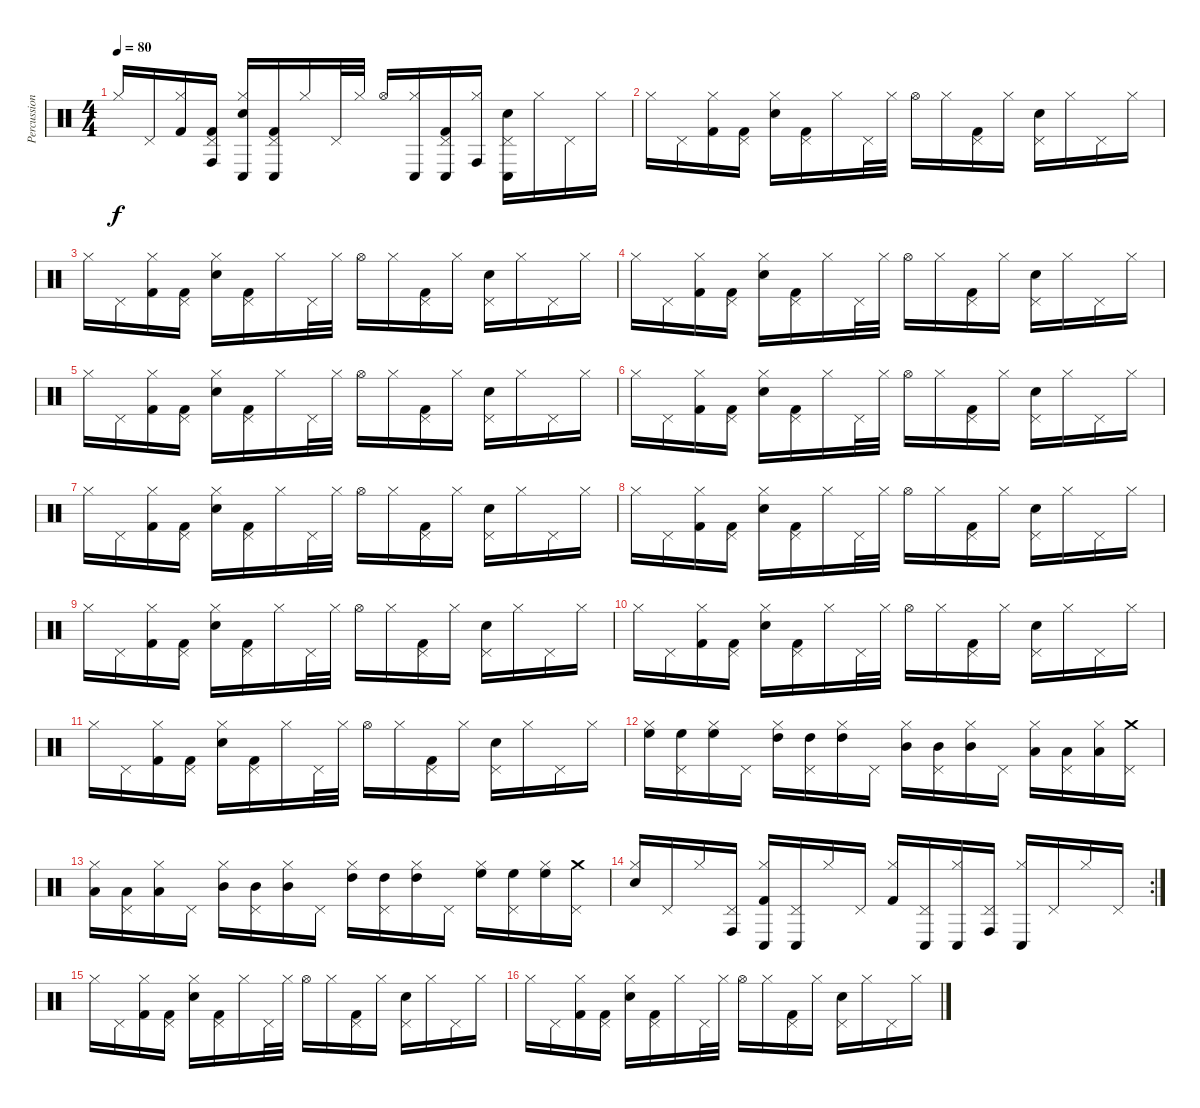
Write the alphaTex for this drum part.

\track ("Percussions" "Percussion") {instrument percussion}
\staff {score}
\articulation defaults
\ts (4 4)
\tempo 80
\clef neutral
\ks c "Hi-Hat (closed)".16{dy f} "Pedal Hi-Hat (hit)".16
("Hi-Hat (closed)" "Kick (hit) 2").16 ("Pedal Hi-Hat (hit)" "Conga high (hit)" "Kick (hit) 2").16 ("Hi-Hat (closed)" "Conga low (hit)" "Electric Snare (hit)").16 ("Pedal Hi-Hat (hit)" "Conga low (hit)" "Kick (hit) 2").16 "Hi-Hat (closed)".16 "Pedal Hi-Hat (hit)".32 "Hi-Hat (closed)".32 "Hi-Hat (open)".16 ("Hi-Hat (closed)" "Conga low (hit)").16 ("Pedal Hi-Hat (hit)" "Conga low (hit)" "Kick (hit) 2").16 ("Hi-Hat (closed)" "Conga high (hit)").16 ("Pedal Hi-Hat (hit)" "Conga low (hit)" "Electric Snare (hit)").16 "Hi-Hat (closed)".16 "Pedal Hi-Hat (hit)".16 "Hi-Hat (closed)".16 |
"Hi-Hat (closed)".16 "Pedal Hi-Hat (hit)".16 ("Hi-Hat (closed)" "Kick (hit) 2").16 ("Pedal Hi-Hat (hit)" "Kick (hit) 2").16 ("Hi-Hat (closed)" "Electric Snare (hit)").16 ("Pedal Hi-Hat (hit)" "Kick (hit) 2").16 "Hi-Hat (closed)".16 "Pedal Hi-Hat (hit)".32 "Hi-Hat (closed)".32 "Hi-Hat (open)".16 "Hi-Hat (closed)".16 ("Pedal Hi-Hat (hit)" "Kick (hit) 2").16 "Hi-Hat (closed)".16 ("Pedal Hi-Hat (hit)" "Electric Snare (hit)").16 "Hi-Hat (closed)".16 "Pedal Hi-Hat (hit)".16 "Hi-Hat (closed)".16 |
"Hi-Hat (closed)".16 "Pedal Hi-Hat (hit)".16 ("Hi-Hat (closed)" "Kick (hit) 2").16 ("Pedal Hi-Hat (hit)" "Kick (hit) 2").16 ("Hi-Hat (closed)" "Electric Snare (hit)").16 ("Pedal Hi-Hat (hit)" "Kick (hit) 2").16 "Hi-Hat (closed)".16 "Pedal Hi-Hat (hit)".32 "Hi-Hat (closed)".32 "Hi-Hat (open)".16 "Hi-Hat (closed)".16 ("Pedal Hi-Hat (hit)" "Kick (hit) 2").16 "Hi-Hat (closed)".16 ("Pedal Hi-Hat (hit)" "Electric Snare (hit)").16 "Hi-Hat (closed)".16 "Pedal Hi-Hat (hit)".16 "Hi-Hat (closed)".16 |
"Hi-Hat (closed)".16 "Pedal Hi-Hat (hit)".16 ("Hi-Hat (closed)" "Kick (hit) 2").16 ("Pedal Hi-Hat (hit)" "Kick (hit) 2").16 ("Hi-Hat (closed)" "Electric Snare (hit)").16 ("Pedal Hi-Hat (hit)" "Kick (hit) 2").16 "Hi-Hat (closed)".16 "Pedal Hi-Hat (hit)".32 "Hi-Hat (closed)".32 "Hi-Hat (open)".16 "Hi-Hat (closed)".16 ("Pedal Hi-Hat (hit)" "Kick (hit) 2").16 "Hi-Hat (closed)".16 ("Pedal Hi-Hat (hit)" "Electric Snare (hit)").16 "Hi-Hat (closed)".16 "Pedal Hi-Hat (hit)".16 "Hi-Hat (closed)".16 |
"Hi-Hat (closed)".16 "Pedal Hi-Hat (hit)".16 ("Hi-Hat (closed)" "Kick (hit) 2").16 ("Pedal Hi-Hat (hit)" "Kick (hit) 2").16 ("Hi-Hat (closed)" "Electric Snare (hit)").16 ("Pedal Hi-Hat (hit)" "Kick (hit) 2").16 "Hi-Hat (closed)".16 "Pedal Hi-Hat (hit)".32 "Hi-Hat (closed)".32 "Hi-Hat (open)".16 "Hi-Hat (closed)".16 ("Pedal Hi-Hat (hit)" "Kick (hit) 2").16 "Hi-Hat (closed)".16 ("Pedal Hi-Hat (hit)" "Electric Snare (hit)").16 "Hi-Hat (closed)".16 "Pedal Hi-Hat (hit)".16 "Hi-Hat (closed)".16 |
"Hi-Hat (closed)".16 "Pedal Hi-Hat (hit)".16 ("Hi-Hat (closed)" "Kick (hit) 2").16 ("Pedal Hi-Hat (hit)" "Kick (hit) 2").16 ("Hi-Hat (closed)" "Electric Snare (hit)").16 ("Pedal Hi-Hat (hit)" "Kick (hit) 2").16 "Hi-Hat (closed)".16 "Pedal Hi-Hat (hit)".32 "Hi-Hat (closed)".32 "Hi-Hat (open)".16 "Hi-Hat (closed)".16 ("Pedal Hi-Hat (hit)" "Kick (hit) 2").16 "Hi-Hat (closed)".16 ("Pedal Hi-Hat (hit)" "Electric Snare (hit)").16 "Hi-Hat (closed)".16 "Pedal Hi-Hat (hit)".16 "Hi-Hat (closed)".16 |
"Hi-Hat (closed)".16 "Pedal Hi-Hat (hit)".16 ("Hi-Hat (closed)" "Kick (hit) 2").16 ("Pedal Hi-Hat (hit)" "Kick (hit) 2").16 ("Hi-Hat (closed)" "Electric Snare (hit)").16 ("Pedal Hi-Hat (hit)" "Kick (hit) 2").16 "Hi-Hat (closed)".16 "Pedal Hi-Hat (hit)".32 "Hi-Hat (closed)".32 "Hi-Hat (open)".16 "Hi-Hat (closed)".16 ("Pedal Hi-Hat (hit)" "Kick (hit) 2").16 "Hi-Hat (closed)".16 ("Pedal Hi-Hat (hit)" "Electric Snare (hit)").16 "Hi-Hat (closed)".16 "Pedal Hi-Hat (hit)".16 "Hi-Hat (closed)".16 |
"Hi-Hat (closed)".16 "Pedal Hi-Hat (hit)".16 ("Hi-Hat (closed)" "Kick (hit) 2").16 ("Pedal Hi-Hat (hit)" "Kick (hit) 2").16 ("Hi-Hat (closed)" "Electric Snare (hit)").16 ("Pedal Hi-Hat (hit)" "Kick (hit) 2").16 "Hi-Hat (closed)".16 "Pedal Hi-Hat (hit)".32 "Hi-Hat (closed)".32 "Hi-Hat (open)".16 "Hi-Hat (closed)".16 ("Pedal Hi-Hat (hit)" "Kick (hit) 2").16 "Hi-Hat (closed)".16 ("Pedal Hi-Hat (hit)" "Electric Snare (hit)").16 "Hi-Hat (closed)".16 "Pedal Hi-Hat (hit)".16 "Hi-Hat (closed)".16 |
"Hi-Hat (closed)".16 "Pedal Hi-Hat (hit)".16 ("Hi-Hat (closed)" "Kick (hit) 2").16 ("Pedal Hi-Hat (hit)" "Kick (hit) 2").16 ("Hi-Hat (closed)" "Electric Snare (hit)").16 ("Pedal Hi-Hat (hit)" "Kick (hit) 2").16 "Hi-Hat (closed)".16 "Pedal Hi-Hat (hit)".32 "Hi-Hat (closed)".32 "Hi-Hat (open)".16 "Hi-Hat (closed)".16 ("Pedal Hi-Hat (hit)" "Kick (hit) 2").16 "Hi-Hat (closed)".16 ("Pedal Hi-Hat (hit)" "Electric Snare (hit)").16 "Hi-Hat (closed)".16 "Pedal Hi-Hat (hit)".16 "Hi-Hat (closed)".16 |
"Hi-Hat (closed)".16 "Pedal Hi-Hat (hit)".16 ("Hi-Hat (closed)" "Kick (hit) 2").16 ("Pedal Hi-Hat (hit)" "Kick (hit) 2").16 ("Hi-Hat (closed)" "Electric Snare (hit)").16 ("Pedal Hi-Hat (hit)" "Kick (hit) 2").16 "Hi-Hat (closed)".16 "Pedal Hi-Hat (hit)".32 "Hi-Hat (closed)".32 "Hi-Hat (open)".16 "Hi-Hat (closed)".16 ("Pedal Hi-Hat (hit)" "Kick (hit) 2").16 "Hi-Hat (closed)".16 ("Pedal Hi-Hat (hit)" "Electric Snare (hit)").16 "Hi-Hat (closed)".16 "Pedal Hi-Hat (hit)".16 "Hi-Hat (closed)".16 |
"Hi-Hat (closed)".16 "Pedal Hi-Hat (hit)".16 ("Hi-Hat (closed)" "Kick (hit) 2").16 ("Pedal Hi-Hat (hit)" "Kick (hit) 2").16 ("Hi-Hat (closed)" "Electric Snare (hit)").16 ("Pedal Hi-Hat (hit)" "Kick (hit) 2").16 "Hi-Hat (closed)".16 "Pedal Hi-Hat (hit)".32 "Hi-Hat (closed)".32 "Hi-Hat (open)".16 "Hi-Hat (closed)".16 ("Pedal Hi-Hat (hit)" "Kick (hit) 2").16 "Hi-Hat (closed)".16 ("Pedal Hi-Hat (hit)" "Electric Snare (hit)").16 "Hi-Hat (closed)".16 "Pedal Hi-Hat (hit)".16 "Hi-Hat (closed)".16 |
("Hi-Hat (closed)" "High Floor Tom (hit)").16 ("Pedal Hi-Hat (hit)" "High Floor Tom (hit)").16 ("Hi-Hat (closed)" "High Floor Tom (hit)").16 "Pedal Hi-Hat (hit)".16 ("Hi-Hat (closed)" "High Tom (hit)").16 ("Pedal Hi-Hat (hit)" "High Tom (hit)").16 ("Hi-Hat (closed)" "High Tom (hit)").16 "Pedal Hi-Hat (hit)".16 ("Hi-Hat (closed)" "Mid Tom (hit)").16 ("Pedal Hi-Hat (hit)" "Mid Tom (hit)").16 ("Hi-Hat (closed)" "Mid Tom (hit)").16 "Pedal Hi-Hat (hit)".16 ("Hi-Hat (closed)" "Low Tom (hit)").16 ("Pedal Hi-Hat (hit)" "Low Tom (hit)").16 ("Hi-Hat (closed)" "Low Tom (hit)").16 ("Pedal Hi-Hat (hit)" "Crash medium (hit)").16 |
("Hi-Hat (closed)" "Low Tom (hit)").16 ("Pedal Hi-Hat (hit)" "Low Tom (hit)").16 ("Hi-Hat (closed)" "Low Tom (hit)").16 "Pedal Hi-Hat (hit)".16 ("Hi-Hat (closed)" "Mid Tom (hit)").16 ("Pedal Hi-Hat (hit)" "Mid Tom (hit)").16 ("Hi-Hat (closed)" "Mid Tom (hit)").16 "Pedal Hi-Hat (hit)".16 ("Hi-Hat (closed)" "High Tom (hit)").16 ("Pedal Hi-Hat (hit)" "High Tom (hit)").16 ("Hi-Hat (closed)" "High Tom (hit)").16 "Pedal Hi-Hat (hit)".16 ("Hi-Hat (closed)" "High Floor Tom (hit)").16 ("Pedal Hi-Hat (hit)" "High Floor Tom (hit)").16 ("Hi-Hat (closed)" "High Floor Tom (hit)").16 ("Pedal Hi-Hat (hit)" "Crash medium (hit)").16 |
\rc 2
("Hi-Hat (closed)" "Snare (hit) 2").16 "Pedal Hi-Hat (hit)".16 "Hi-Hat (closed)".16 ("Pedal Hi-Hat (hit)" "Conga high (hit)").16 ("Hi-Hat (closed)" "Kick (hit) 2" "Conga low (hit)").16 ("Pedal Hi-Hat (hit)" "Conga low (hit)").16 "Hi-Hat (closed)".16 "Pedal Hi-Hat (hit)".16 ("Hi-Hat (closed)" "Kick (hit) 2").16 ("Pedal Hi-Hat (hit)" "Conga low (hit)").16 ("Hi-Hat (closed)" "Conga low (hit)").16 ("Pedal Hi-Hat (hit)" "Conga high (hit)").16 ("Hi-Hat (closed)" "Conga low (hit)").16 "Pedal Hi-Hat (hit)".16 "Hi-Hat (closed)".16 "Pedal Hi-Hat (hit)".16 |
"Hi-Hat (closed)".16 "Pedal Hi-Hat (hit)".16 ("Hi-Hat (closed)" "Kick (hit) 2").16 ("Pedal Hi-Hat (hit)" "Kick (hit) 2").16 ("Hi-Hat (closed)" "Electric Snare (hit)").16 ("Pedal Hi-Hat (hit)" "Kick (hit) 2").16 "Hi-Hat (closed)".16 "Pedal Hi-Hat (hit)".32 "Hi-Hat (closed)".32 "Hi-Hat (open)".16 "Hi-Hat (closed)".16 ("Pedal Hi-Hat (hit)" "Kick (hit) 2").16 "Hi-Hat (closed)".16 ("Pedal Hi-Hat (hit)" "Electric Snare (hit)").16 "Hi-Hat (closed)".16 "Pedal Hi-Hat (hit)".16 "Hi-Hat (closed)".16 |
"Hi-Hat (closed)".16 "Pedal Hi-Hat (hit)".16 ("Hi-Hat (closed)" "Kick (hit) 2").16 ("Pedal Hi-Hat (hit)" "Kick (hit) 2").16 ("Hi-Hat (closed)" "Electric Snare (hit)").16 ("Pedal Hi-Hat (hit)" "Kick (hit) 2").16 "Hi-Hat (closed)".16 "Pedal Hi-Hat (hit)".32 "Hi-Hat (closed)".32 "Hi-Hat (open)".16 "Hi-Hat (closed)".16 ("Pedal Hi-Hat (hit)" "Kick (hit) 2").16 "Hi-Hat (closed)".16 ("Pedal Hi-Hat (hit)" "Electric Snare (hit)").16 "Hi-Hat (closed)".16 "Pedal Hi-Hat (hit)".16 "Hi-Hat (closed)".16
